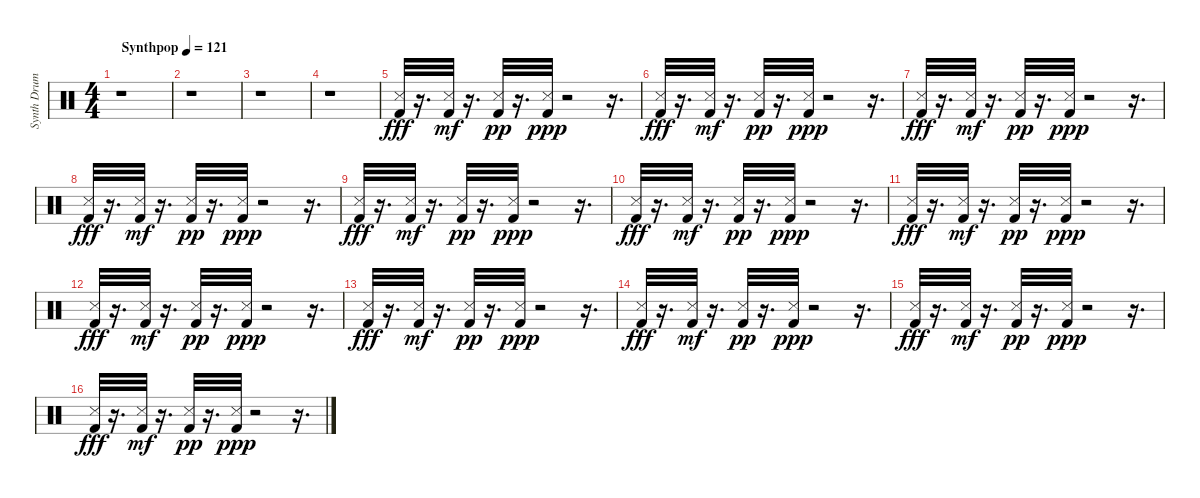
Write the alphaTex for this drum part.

\track ("Synth Drums" "Synth Drum") {instrument percussion}
\staff {score}
\articulation defaults
\ts (4 4)
\tempo (121 "Synthpop")
\clef neutral
\ks c
r.1{dy fff} |
r.1 |
r.1 |
r.1 |
("Metronome (hit)" "Kick (hit) 2").32 r.16{d} ("Metronome (hit)" "Kick (hit) 2").32{dy mf} r.16{d} ("Metronome (hit)" "Kick (hit) 2").32{dy pp} r.16{d} ("Metronome (hit)" "Kick (hit) 2").32{dy ppp} r.2 r.16{d} |
("Kick (hit) 2" "Metronome (hit)").32{dy fff} r.16{d} ("Kick (hit) 2" "Metronome (hit)").32{dy mf} r.16{d} ("Kick (hit) 2" "Metronome (hit)").32{dy pp} r.16{d} ("Kick (hit) 2" "Metronome (hit)").32{dy ppp} r.2 r.16{d} |
("Metronome (hit)" "Kick (hit) 2").32{dy fff} r.16{d} ("Metronome (hit)" "Kick (hit) 2").32{dy mf} r.16{d} ("Metronome (hit)" "Kick (hit) 2").32{dy pp} r.16{d} ("Metronome (hit)" "Kick (hit) 2").32{dy ppp} r.2 r.16{d} |
("Kick (hit) 2" "Metronome (hit)").32{dy fff} r.16{d} ("Kick (hit) 2" "Metronome (hit)").32{dy mf} r.16{d} ("Kick (hit) 2" "Metronome (hit)").32{dy pp} r.16{d} ("Kick (hit) 2" "Metronome (hit)").32{dy ppp} r.2 r.16{d} |
("Metronome (hit)" "Kick (hit) 2").32{dy fff} r.16{d} ("Metronome (hit)" "Kick (hit) 2").32{dy mf} r.16{d} ("Metronome (hit)" "Kick (hit) 2").32{dy pp} r.16{d} ("Metronome (hit)" "Kick (hit) 2").32{dy ppp} r.2 r.16{d} |
("Kick (hit) 2" "Metronome (hit)").32{dy fff} r.16{d} ("Kick (hit) 2" "Metronome (hit)").32{dy mf} r.16{d} ("Kick (hit) 2" "Metronome (hit)").32{dy pp} r.16{d} ("Kick (hit) 2" "Metronome (hit)").32{dy ppp} r.2 r.16{d} |
("Metronome (hit)" "Kick (hit) 2").32{dy fff} r.16{d} ("Metronome (hit)" "Kick (hit) 2").32{dy mf} r.16{d} ("Metronome (hit)" "Kick (hit) 2").32{dy pp} r.16{d} ("Metronome (hit)" "Kick (hit) 2").32{dy ppp} r.2 r.16{d} |
("Kick (hit) 2" "Metronome (hit)").32{dy fff} r.16{d} ("Kick (hit) 2" "Metronome (hit)").32{dy mf} r.16{d} ("Kick (hit) 2" "Metronome (hit)").32{dy pp} r.16{d} ("Kick (hit) 2" "Metronome (hit)").32{dy ppp} r.2 r.16{d} |
("Metronome (hit)" "Kick (hit) 2").32{dy fff} r.16{d} ("Metronome (hit)" "Kick (hit) 2").32{dy mf} r.16{d} ("Metronome (hit)" "Kick (hit) 2").32{dy pp} r.16{d} ("Metronome (hit)" "Kick (hit) 2").32{dy ppp} r.2 r.16{d} |
("Kick (hit) 2" "Metronome (hit)").32{dy fff} r.16{d} ("Kick (hit) 2" "Metronome (hit)").32{dy mf} r.16{d} ("Kick (hit) 2" "Metronome (hit)").32{dy pp} r.16{d} ("Kick (hit) 2" "Metronome (hit)").32{dy ppp} r.2 r.16{d} |
("Metronome (hit)" "Kick (hit) 2").32{dy fff} r.16{d} ("Metronome (hit)" "Kick (hit) 2").32{dy mf} r.16{d} ("Metronome (hit)" "Kick (hit) 2").32{dy pp} r.16{d} ("Metronome (hit)" "Kick (hit) 2").32{dy ppp} r.2 r.16{d} |
("Kick (hit) 2" "Metronome (hit)").32{dy fff} r.16{d} ("Kick (hit) 2" "Metronome (hit)").32{dy mf} r.16{d} ("Kick (hit) 2" "Metronome (hit)").32{dy pp} r.16{d} ("Kick (hit) 2" "Metronome (hit)").32{dy ppp} r.2 r.16{d}
